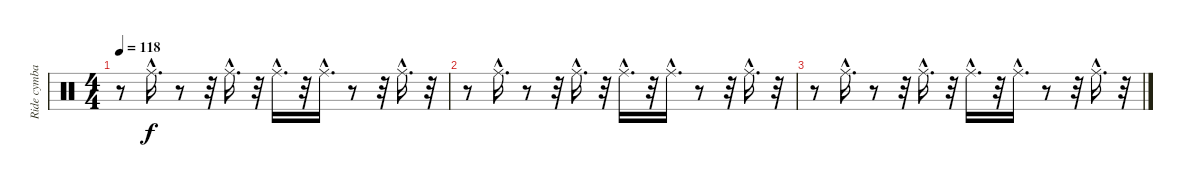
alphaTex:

\track ("Ride cymbal         " "Ride cymba") {instrument percussion}
\staff {score}
\articulation defaults
\ts (4 4)
\tempo 118
\clef neutral
\ks c
r.8{dy f} "Ride (middle)"{hac}.16{d} r.8 r.32 "Ride (middle)"{hac}.16{d} r.32 "Ride (middle)"{hac}.16{d} r.32 "Ride (middle)"{hac}.16{d} r.8 r.32 "Ride (middle)"{hac}.16{d} r.32 |
r.8 "Ride (middle)"{hac}.16{d} r.8 r.32 "Ride (middle)"{hac}.16{d} r.32 "Ride (middle)"{hac}.16{d} r.32 "Ride (middle)"{hac}.16{d} r.8 r.32 "Ride (middle)"{hac}.16{d} r.32 |
r.8 "Ride (middle)"{hac}.16{d} r.8 r.32 "Ride (middle)"{hac}.16{d} r.32 "Ride (middle)"{hac}.16{d} r.32 "Ride (middle)"{hac}.16{d} r.8 r.32 "Ride (middle)"{hac}.16{d} r.32
